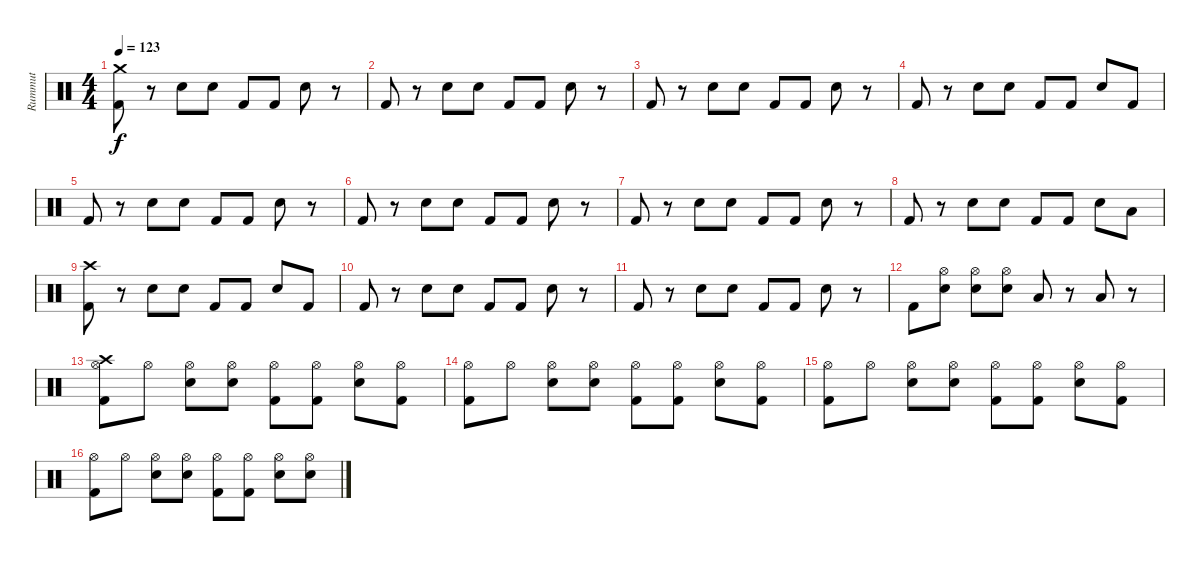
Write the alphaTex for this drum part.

\track ("Rummut" "Rummut") {instrument percussion}
\staff {score}
\articulation defaults
\ts (4 4)
\tempo 123
\clef neutral
\ks c
("Crash medium (hit)" "Kick (hit) 2").8{dy f} r.8 "Electric Snare (hit)".8 "Electric Snare (hit)".8 "Kick (hit) 2".8 "Kick (hit) 2".8 "Electric Snare (hit)".8 r.8 |
"Kick (hit) 2".8 r.8 "Electric Snare (hit)".8 "Electric Snare (hit)".8 "Kick (hit) 2".8 "Kick (hit) 2".8 "Electric Snare (hit)".8 r.8 |
"Kick (hit) 2".8 r.8 "Electric Snare (hit)".8 "Electric Snare (hit)".8 "Kick (hit) 2".8 "Kick (hit) 2".8 "Electric Snare (hit)".8 r.8 |
"Kick (hit) 2".8 r.8 "Electric Snare (hit)".8 "Electric Snare (hit)".8 "Kick (hit) 2".8 "Kick (hit) 2".8 "Electric Snare (hit)".8 "Kick (hit) 2".8 |
"Kick (hit) 2".8 r.8 "Electric Snare (hit)".8 "Electric Snare (hit)".8 "Kick (hit) 2".8 "Kick (hit) 2".8 "Electric Snare (hit)".8 r.8 |
"Kick (hit) 2".8 r.8 "Electric Snare (hit)".8 "Electric Snare (hit)".8 "Kick (hit) 2".8 "Kick (hit) 2".8 "Electric Snare (hit)".8 r.8 |
"Kick (hit) 2".8 r.8 "Electric Snare (hit)".8 "Electric Snare (hit)".8 "Kick (hit) 2".8 "Kick (hit) 2".8 "Electric Snare (hit)".8 r.8 |
"Kick (hit) 2".8 r.8 "Electric Snare (hit)".8 "Electric Snare (hit)".8 "Kick (hit) 2".8 "Kick (hit) 2".8 "Electric Snare (hit)".8 "Low Tom (hit)".8 |
("Crash high (hit)" "Kick (hit) 2").8 r.8 "Electric Snare (hit)".8 "Electric Snare (hit)".8 "Kick (hit) 2".8 "Kick (hit) 2".8 "Electric Snare (hit)".8 "Kick (hit) 2".8 |
"Kick (hit) 2".8 r.8 "Electric Snare (hit)".8 "Electric Snare (hit)".8 "Kick (hit) 2".8 "Kick (hit) 2".8 "Electric Snare (hit)".8 r.8 |
"Kick (hit) 2".8 r.8 "Electric Snare (hit)".8 "Electric Snare (hit)".8 "Kick (hit) 2".8 "Kick (hit) 2".8 "Electric Snare (hit)".8 r.8 |
"Kick (hit) 2".8 ("Hi-Hat (open)" "Electric Snare (hit)").8 ("Hi-Hat (open)" "Electric Snare (hit)").8 ("Hi-Hat (open)" "Electric Snare (hit)").8 "Low Tom (hit)".8 r.8 "Low Tom (hit)".8 r.8 |
("Crash high (hit)" "Hi-Hat (open)" "Kick (hit) 2").8 "Hi-Hat (open)".8 ("Hi-Hat (open)" "Electric Snare (hit)").8 ("Hi-Hat (open)" "Electric Snare (hit)").8 ("Hi-Hat (open)" "Kick (hit) 2").8 ("Hi-Hat (open)" "Kick (hit) 2").8 ("Hi-Hat (open)" "Electric Snare (hit)").8 ("Hi-Hat (open)" "Kick (hit) 2").8 |
("Hi-Hat (open)" "Kick (hit) 2").8 "Hi-Hat (open)".8 ("Hi-Hat (open)" "Electric Snare (hit)").8 ("Hi-Hat (open)" "Electric Snare (hit)").8 ("Hi-Hat (open)" "Kick (hit) 2").8 ("Hi-Hat (open)" "Kick (hit) 2").8 ("Hi-Hat (open)" "Electric Snare (hit)").8 ("Hi-Hat (open)" "Kick (hit) 2").8 |
("Hi-Hat (open)" "Kick (hit) 2").8 "Hi-Hat (open)".8 ("Hi-Hat (open)" "Electric Snare (hit)").8 ("Hi-Hat (open)" "Electric Snare (hit)").8 ("Hi-Hat (open)" "Kick (hit) 2").8 ("Hi-Hat (open)" "Kick (hit) 2").8 ("Hi-Hat (open)" "Electric Snare (hit)").8 ("Hi-Hat (open)" "Kick (hit) 2").8 |
("Hi-Hat (open)" "Kick (hit) 2").8 "Hi-Hat (open)".8 ("Hi-Hat (open)" "Electric Snare (hit)").8 ("Hi-Hat (open)" "Electric Snare (hit)").8 ("Hi-Hat (open)" "Kick (hit) 2").8 ("Hi-Hat (open)" "Kick (hit) 2").8 ("Hi-Hat (open)" "Electric Snare (hit)").8 ("Hi-Hat (open)" "Electric Snare (hit)").8
